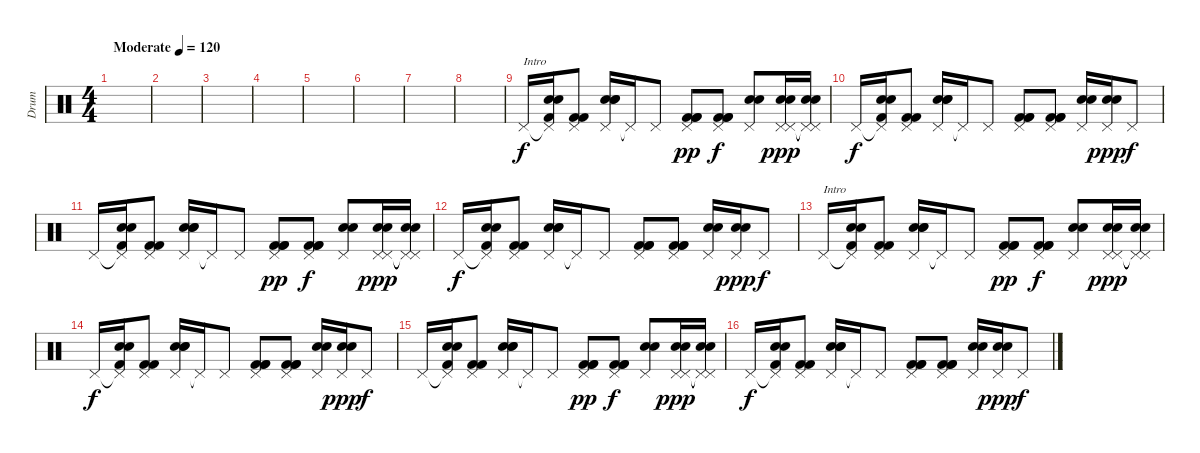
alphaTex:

\track ("Drum" "Drum") {instrument percussion}
\staff {score}
\articulation defaults
\ts (4 4)
\tempo (120 "Moderate")
\clef neutral
\ks c
|
|
|
|
|
|
|
|
"Pedal Hi-Hat (hit)".16{txt "Intro"} ("Pedal Hi-Hat (hit)"{t} "Snare (hit) 2" "Snare (hit) 2" "Kick (hit) 2").16 ("Pedal Hi-Hat (hit)" "Kick (hit) 2" "Kick (hit) 2").8 ("Pedal Hi-Hat (hit)" "Snare (hit) 2" "Snare (hit) 2" "Snare (hit) 2").16 "Pedal Hi-Hat (hit)"{t}.16 "Pedal Hi-Hat (hit)".8 ("Pedal Hi-Hat (hit)" "Kick (hit) 2" "Kick (hit) 2" "Kick (hit) 2").8{dy pp} ("Pedal Hi-Hat (hit)" "Kick (hit) 2" "Kick (hit) 2" "Kick (hit) 2").8{dy f} ("Pedal Hi-Hat (hit)" "Snare (hit) 2" "Snare (hit) 2").8 ("Pedal Hi-Hat (hit)" "Pedal Hi-Hat (hit)" "Snare (hit) 2" "Snare (hit) 2").16{dy ppp} ("Pedal Hi-Hat (hit)"{t} "Pedal Hi-Hat (hit)"{t} "Snare (hit) 2" "Snare (hit) 2").16 |
"Pedal Hi-Hat (hit)".16{dy f} ("Pedal Hi-Hat (hit)"{t} "Snare (hit) 2" "Snare (hit) 2" "Kick (hit) 2").16 ("Pedal Hi-Hat (hit)" "Kick (hit) 2" "Kick (hit) 2").8 ("Pedal Hi-Hat (hit)" "Snare (hit) 2" "Snare (hit) 2" "Snare (hit) 2").16 "Pedal Hi-Hat (hit)"{t}.16 "Pedal Hi-Hat (hit)".8 ("Pedal Hi-Hat (hit)" "Kick (hit) 2" "Kick (hit) 2" "Kick (hit) 2").8 ("Pedal Hi-Hat (hit)" "Kick (hit) 2" "Kick (hit) 2" "Kick (hit) 2").8 ("Pedal Hi-Hat (hit)" "Snare (hit) 2" "Snare (hit) 2").16 ("Pedal Hi-Hat (hit)" "Snare (hit) 2" "Snare (hit) 2").16{dy ppp} "Pedal Hi-Hat (hit)".8{dy f} |
"Pedal Hi-Hat (hit)".16 ("Pedal Hi-Hat (hit)"{t} "Snare (hit) 2" "Snare (hit) 2" "Kick (hit) 2").16 ("Pedal Hi-Hat (hit)" "Kick (hit) 2" "Kick (hit) 2").8 ("Pedal Hi-Hat (hit)" "Snare (hit) 2" "Snare (hit) 2" "Snare (hit) 2").16 "Pedal Hi-Hat (hit)"{t}.16 "Pedal Hi-Hat (hit)".8 ("Pedal Hi-Hat (hit)" "Kick (hit) 2" "Kick (hit) 2" "Kick (hit) 2").8{dy pp} ("Pedal Hi-Hat (hit)" "Kick (hit) 2" "Kick (hit) 2" "Kick (hit) 2").8{dy f} ("Pedal Hi-Hat (hit)" "Snare (hit) 2" "Snare (hit) 2").8 ("Pedal Hi-Hat (hit)" "Pedal Hi-Hat (hit)" "Snare (hit) 2" "Snare (hit) 2").16{dy ppp} ("Pedal Hi-Hat (hit)"{t} "Pedal Hi-Hat (hit)"{t} "Snare (hit) 2" "Snare (hit) 2").16 |
"Pedal Hi-Hat (hit)".16{dy f} ("Pedal Hi-Hat (hit)"{t} "Snare (hit) 2" "Snare (hit) 2" "Kick (hit) 2").16 ("Pedal Hi-Hat (hit)" "Kick (hit) 2" "Kick (hit) 2").8 ("Pedal Hi-Hat (hit)" "Snare (hit) 2" "Snare (hit) 2" "Snare (hit) 2").16 "Pedal Hi-Hat (hit)"{t}.16 "Pedal Hi-Hat (hit)".8 ("Pedal Hi-Hat (hit)" "Kick (hit) 2" "Kick (hit) 2" "Kick (hit) 2").8 ("Pedal Hi-Hat (hit)" "Kick (hit) 2" "Kick (hit) 2" "Kick (hit) 2").8 ("Pedal Hi-Hat (hit)" "Snare (hit) 2" "Snare (hit) 2").16 ("Pedal Hi-Hat (hit)" "Snare (hit) 2" "Snare (hit) 2").16{dy ppp} "Pedal Hi-Hat (hit)".8{dy f} |
"Pedal Hi-Hat (hit)".16{txt "Intro"} ("Pedal Hi-Hat (hit)"{t} "Snare (hit) 2" "Snare (hit) 2" "Kick (hit) 2").16 ("Pedal Hi-Hat (hit)" "Kick (hit) 2" "Kick (hit) 2").8 ("Pedal Hi-Hat (hit)" "Snare (hit) 2" "Snare (hit) 2" "Snare (hit) 2").16 "Pedal Hi-Hat (hit)"{t}.16 "Pedal Hi-Hat (hit)".8 ("Pedal Hi-Hat (hit)" "Kick (hit) 2" "Kick (hit) 2" "Kick (hit) 2").8{dy pp} ("Pedal Hi-Hat (hit)" "Kick (hit) 2" "Kick (hit) 2" "Kick (hit) 2").8{dy f} ("Pedal Hi-Hat (hit)" "Snare (hit) 2" "Snare (hit) 2").8 ("Pedal Hi-Hat (hit)" "Pedal Hi-Hat (hit)" "Snare (hit) 2" "Snare (hit) 2").16{dy ppp} ("Pedal Hi-Hat (hit)"{t} "Pedal Hi-Hat (hit)"{t} "Snare (hit) 2" "Snare (hit) 2").16 |
"Pedal Hi-Hat (hit)".16{dy f} ("Pedal Hi-Hat (hit)"{t} "Snare (hit) 2" "Snare (hit) 2" "Kick (hit) 2").16 ("Pedal Hi-Hat (hit)" "Kick (hit) 2" "Kick (hit) 2").8 ("Pedal Hi-Hat (hit)" "Snare (hit) 2" "Snare (hit) 2" "Snare (hit) 2").16 "Pedal Hi-Hat (hit)"{t}.16 "Pedal Hi-Hat (hit)".8 ("Pedal Hi-Hat (hit)" "Kick (hit) 2" "Kick (hit) 2" "Kick (hit) 2").8 ("Pedal Hi-Hat (hit)" "Kick (hit) 2" "Kick (hit) 2" "Kick (hit) 2").8 ("Pedal Hi-Hat (hit)" "Snare (hit) 2" "Snare (hit) 2").16 ("Pedal Hi-Hat (hit)" "Snare (hit) 2" "Snare (hit) 2").16{dy ppp} "Pedal Hi-Hat (hit)".8{dy f} |
"Pedal Hi-Hat (hit)".16 ("Pedal Hi-Hat (hit)"{t} "Snare (hit) 2" "Snare (hit) 2" "Kick (hit) 2").16 ("Pedal Hi-Hat (hit)" "Kick (hit) 2" "Kick (hit) 2").8 ("Pedal Hi-Hat (hit)" "Snare (hit) 2" "Snare (hit) 2" "Snare (hit) 2").16 "Pedal Hi-Hat (hit)"{t}.16 "Pedal Hi-Hat (hit)".8 ("Pedal Hi-Hat (hit)" "Kick (hit) 2" "Kick (hit) 2" "Kick (hit) 2").8{dy pp} ("Pedal Hi-Hat (hit)" "Kick (hit) 2" "Kick (hit) 2" "Kick (hit) 2").8{dy f} ("Pedal Hi-Hat (hit)" "Snare (hit) 2" "Snare (hit) 2").8 ("Pedal Hi-Hat (hit)" "Pedal Hi-Hat (hit)" "Snare (hit) 2" "Snare (hit) 2").16{dy ppp} ("Pedal Hi-Hat (hit)"{t} "Pedal Hi-Hat (hit)"{t} "Snare (hit) 2" "Snare (hit) 2").16 |
"Pedal Hi-Hat (hit)".16{dy f} ("Pedal Hi-Hat (hit)"{t} "Snare (hit) 2" "Snare (hit) 2" "Kick (hit) 2").16 ("Pedal Hi-Hat (hit)" "Kick (hit) 2" "Kick (hit) 2").8 ("Pedal Hi-Hat (hit)" "Snare (hit) 2" "Snare (hit) 2" "Snare (hit) 2").16 "Pedal Hi-Hat (hit)"{t}.16 "Pedal Hi-Hat (hit)".8 ("Pedal Hi-Hat (hit)" "Kick (hit) 2" "Kick (hit) 2" "Kick (hit) 2").8 ("Pedal Hi-Hat (hit)" "Kick (hit) 2" "Kick (hit) 2" "Kick (hit) 2").8 ("Pedal Hi-Hat (hit)" "Snare (hit) 2" "Snare (hit) 2").16 ("Pedal Hi-Hat (hit)" "Snare (hit) 2" "Snare (hit) 2").16{dy ppp} "Pedal Hi-Hat (hit)".8{dy f}
